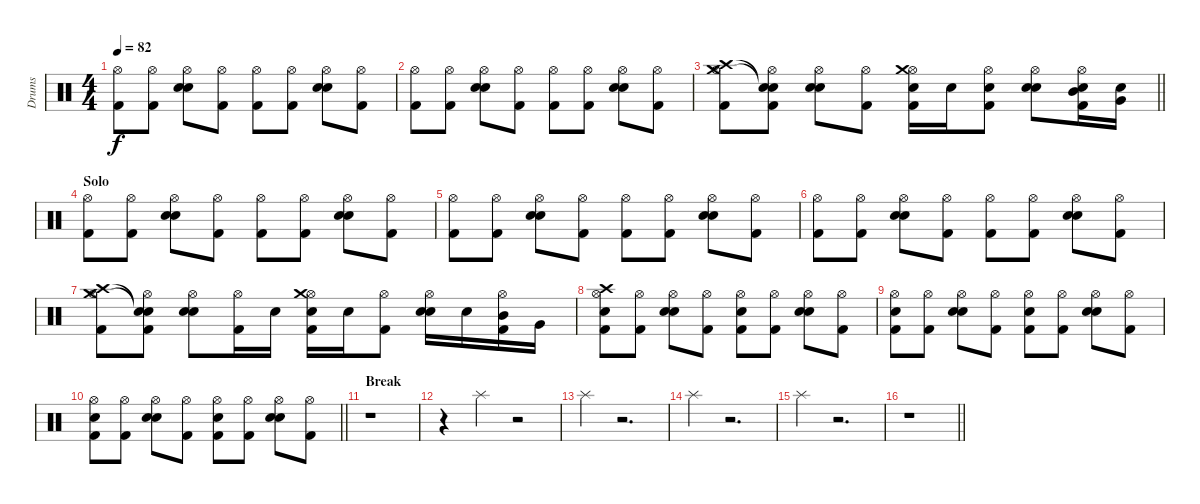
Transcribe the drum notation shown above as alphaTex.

\track ("Drums" "Drums") {instrument percussion}
\staff {score}
\articulation defaults
\ts (4 4)
\tempo 82
\clef neutral
\ks c
("Hi-Hat (open)" "Kick (hit) 2").8{dy f} ("Hi-Hat (open)" "Kick (hit) 2").8 ("Hi-Hat (open)" "Snare (hit) 2" "Electric Snare (hit)").8 ("Hi-Hat (open)" "Kick (hit) 2").8 ("Hi-Hat (open)" "Kick (hit) 2").8 ("Hi-Hat (open)" "Kick (hit) 2").8 ("Hi-Hat (open)" "Snare (hit) 2" "Electric Snare (hit)").8 ("Hi-Hat (open)" "Kick (hit) 2").8 |
("Hi-Hat (open)" "Kick (hit) 2").8 ("Hi-Hat (open)" "Kick (hit) 2").8 ("Hi-Hat (open)" "Snare (hit) 2" "Electric Snare (hit)").8 ("Hi-Hat (open)" "Kick (hit) 2").8 ("Hi-Hat (open)" "Kick (hit) 2").8 ("Hi-Hat (open)" "Kick (hit) 2").8 ("Hi-Hat (open)" "Snare (hit) 2" "Electric Snare (hit)").8 ("Hi-Hat (open)" "Kick (hit) 2").8 |
\barLineRight lightlight
("Hi-Hat (open)" "Crash medium (hit)" "Crash high (hit)" "Kick (hit) 2").8 ("Hi-Hat (open)" "Snare (hit)"{t} "Snare (hit)"{t} "Kick (hit) 2").8 ("Hi-Hat (open)" "Snare (hit) 2" "Electric Snare (hit)").8 ("Hi-Hat (open)" "Kick (hit) 2").8 ("Hi-Hat (open)" "Snare (hit) 2" "Crash medium (hit)" "Kick (hit) 2").16 "Snare (hit) 2".16 ("Hi-Hat (open)" "Snare (hit) 2" "Kick (hit) 2").8 ("Hi-Hat (open)" "Snare (hit) 2" "Electric Snare (hit)").8 ("Hi-Hat (open)" "Snare (hit) 2" "Kick (hit) 2" "Mid Tom (hit)").16 ("Snare (hit) 2" "Very Low Tom (hit)").16 |
\section ("" "Solo")
("Hi-Hat (open)" "Kick (hit) 2").8 ("Hi-Hat (open)" "Kick (hit) 2").8 ("Hi-Hat (open)" "Snare (hit) 2" "Electric Snare (hit)").8 ("Hi-Hat (open)" "Kick (hit) 2").8 ("Hi-Hat (open)" "Kick (hit) 2").8 ("Hi-Hat (open)" "Kick (hit) 2").8 ("Hi-Hat (open)" "Snare (hit) 2" "Electric Snare (hit)").8 ("Hi-Hat (open)" "Kick (hit) 2").8 |
("Hi-Hat (open)" "Kick (hit) 2").8 ("Hi-Hat (open)" "Kick (hit) 2").8 ("Hi-Hat (open)" "Snare (hit) 2" "Electric Snare (hit)").8 ("Hi-Hat (open)" "Kick (hit) 2").8 ("Hi-Hat (open)" "Kick (hit) 2").8 ("Hi-Hat (open)" "Kick (hit) 2").8 ("Hi-Hat (open)" "Snare (hit) 2" "Electric Snare (hit)").8 ("Hi-Hat (open)" "Kick (hit) 2").8 |
("Hi-Hat (open)" "Kick (hit) 2").8 ("Hi-Hat (open)" "Kick (hit) 2").8 ("Hi-Hat (open)" "Snare (hit) 2" "Electric Snare (hit)").8 ("Hi-Hat (open)" "Kick (hit) 2").8 ("Hi-Hat (open)" "Kick (hit) 2").8 ("Hi-Hat (open)" "Kick (hit) 2").8 ("Hi-Hat (open)" "Snare (hit) 2" "Electric Snare (hit)").8 ("Hi-Hat (open)" "Kick (hit) 2").8 |
("Hi-Hat (open)" "Crash medium (hit)" "Crash high (hit)" "Kick (hit) 2").8 ("Hi-Hat (open)" "Snare (hit)"{t} "Snare (hit)"{t} "Kick (hit) 2").8 ("Hi-Hat (open)" "Snare (hit) 2" "Electric Snare (hit)").8 ("Hi-Hat (open)" "Kick (hit) 2").16 "Snare (hit) 2".16 ("Hi-Hat (open)" "Snare (hit) 2" "Crash medium (hit)" "Kick (hit) 2").16 "Snare (hit) 2".16 ("Hi-Hat (open)" "Kick (hit) 2").8 ("Hi-Hat (open)" "Snare (hit) 2" "Electric Snare (hit)").16 "Snare (hit) 2".16 ("Hi-Hat (open)" "Kick (hit) 2" "Mid Tom (hit)").16 "Very Low Tom (hit)".16 |
("Hi-Hat (open)" "Crash high (hit)" "Snare (hit) 2" "Kick (hit) 2").8 ("Hi-Hat (open)" "Kick (hit) 2").8 ("Hi-Hat (open)" "Snare (hit) 2" "Electric Snare (hit)").8 ("Hi-Hat (open)" "Kick (hit) 2").8 ("Hi-Hat (open)" "Snare (hit) 2" "Kick (hit) 2").8 ("Hi-Hat (open)" "Kick (hit) 2").8 ("Hi-Hat (open)" "Snare (hit) 2" "Electric Snare (hit)").8 ("Hi-Hat (open)" "Kick (hit) 2").8 |
("Hi-Hat (open)" "Snare (hit) 2" "Kick (hit) 2").8 ("Hi-Hat (open)" "Kick (hit) 2").8 ("Hi-Hat (open)" "Snare (hit) 2" "Electric Snare (hit)").8 ("Hi-Hat (open)" "Kick (hit) 2").8 ("Hi-Hat (open)" "Snare (hit) 2" "Kick (hit) 2").8 ("Hi-Hat (open)" "Kick (hit) 2").8 ("Hi-Hat (open)" "Snare (hit) 2" "Electric Snare (hit)").8 ("Hi-Hat (open)" "Kick (hit) 2").8 |
\barLineRight lightlight
("Hi-Hat (open)" "Snare (hit) 2" "Kick (hit) 2").8 ("Hi-Hat (open)" "Kick (hit) 2").8 ("Hi-Hat (open)" "Snare (hit) 2" "Electric Snare (hit)").8 ("Hi-Hat (open)" "Kick (hit) 2").8 ("Hi-Hat (open)" "Snare (hit) 2" "Kick (hit) 2").8 ("Hi-Hat (open)" "Kick (hit) 2").8 ("Hi-Hat (open)" "Snare (hit) 2" "Electric Snare (hit)").8 ("Hi-Hat (open)" "Kick (hit) 2").8 |
\section ("" "Break")
r.1 |
r.4 "Splash (hit)".4{volume 9} r.2 |
"Splash (hit)".4 r.2{d} |
"Splash (hit)".4 r.2{d} |
"Splash (hit)".4 r.2{d} |
\barLineRight lightlight
r.1{volume 13}
